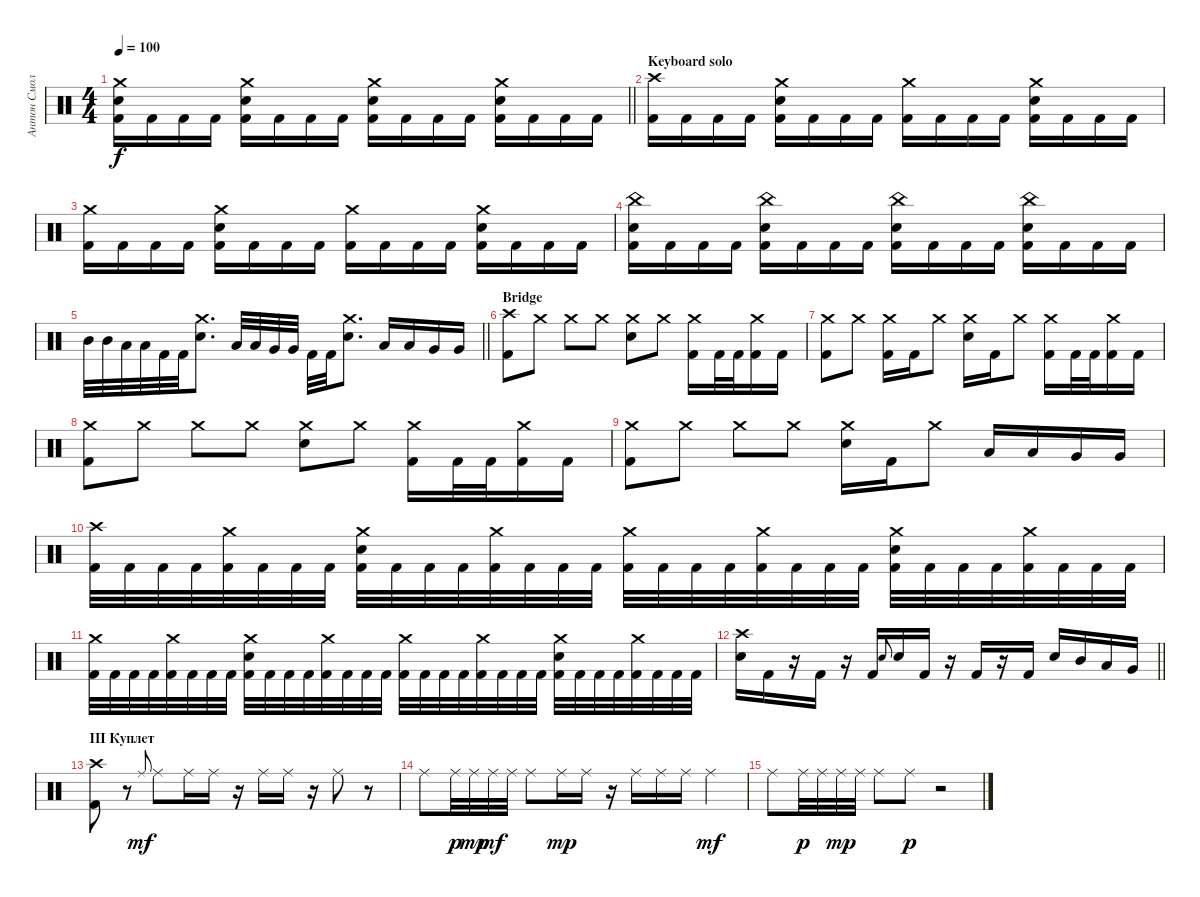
\track ("Антон Смольянин" "Антон Смол") {instrument percussion}
\staff {score}
\articulation defaults
\ts (4 4)
\tempo 100
\clef neutral
\barLineRight lightlight
\ks c
("Crash medium (hit)" "Electric Snare (hit)" "Kick (hit) 2").16{dy f} "Kick (hit) 2".16 "Kick (hit) 2".16 "Kick (hit) 2".16 ("Crash medium (hit)" "Electric Snare (hit)" "Kick (hit) 2").16 "Kick (hit) 2".16 "Kick (hit) 2".16 "Kick (hit) 2".16 ("Crash medium (hit)" "Electric Snare (hit)" "Kick (hit) 2").16 "Kick (hit) 2".16 "Kick (hit) 2".16 "Kick (hit) 2".16 ("Crash medium (hit)" "Electric Snare (hit)" "Kick (hit) 2").16 "Kick (hit) 2".16 "Kick (hit) 2".16 "Kick (hit) 2".16 |
\section ("" "Keyboard solo")
("Crash high (hit)" "Kick (hit) 2").16 "Kick (hit) 2".16 "Kick (hit) 2".16 "Kick (hit) 2".16 ("Crash medium (hit)" "Electric Snare (hit)" "Kick (hit) 2").16 "Kick (hit) 2".16 "Kick (hit) 2".16 "Kick (hit) 2".16 ("Crash medium (hit)" "Kick (hit) 2").16 "Kick (hit) 2".16 "Kick (hit) 2".16 "Kick (hit) 2".16 ("Crash medium (hit)" "Electric Snare (hit)" "Kick (hit) 2").16 "Kick (hit) 2".16 "Kick (hit) 2".16 "Kick (hit) 2".16 |
("Crash medium (hit)" "Kick (hit) 2").16 "Kick (hit) 2".16 "Kick (hit) 2".16 "Kick (hit) 2".16 ("Crash medium (hit)" "Electric Snare (hit)" "Kick (hit) 2").16 "Kick (hit) 2".16 "Kick (hit) 2".16 "Kick (hit) 2".16 ("Crash medium (hit)" "Kick (hit) 2").16 "Kick (hit) 2".16 "Kick (hit) 2".16 "Kick (hit) 2".16 ("Crash medium (hit)" "Electric Snare (hit)" "Kick (hit) 2").16 "Kick (hit) 2".16 "Kick (hit) 2".16 "Kick (hit) 2".16 |
("China (hit)" "Electric Snare (hit)" "Kick (hit) 2").16 "Kick (hit) 2".16 "Kick (hit) 2".16 "Kick (hit) 2".16 ("China (hit)" "Electric Snare (hit)" "Kick (hit) 2").16 "Kick (hit) 2".16 "Kick (hit) 2".16 "Kick (hit) 2".16 ("China (hit)" "Electric Snare (hit)" "Kick (hit) 2").16 "Kick (hit) 2".16 "Kick (hit) 2".16 "Kick (hit) 2".16 ("China (hit)" "Electric Snare (hit)" "Kick (hit) 2").16 "Kick (hit) 2".16 "Kick (hit) 2".16 "Kick (hit) 2".16 |
\barLineRight lightlight "Mid Tom (hit)".32 "Mid Tom (hit)".32 "Low Tom (hit)".32 "Low Tom (hit)".32 "Kick (hit) 2".32 "Kick (hit) 2".32
("Crash medium (hit)" "Electric Snare (hit)").8{d} "Low Tom (hit)".32 "Low Tom (hit)".32 "Very Low Tom (hit)".32 "Very Low Tom (hit)".32 "Kick (hit) 2".32 "Kick (hit) 2".32 ("Crash medium (hit)" "Electric Snare (hit)").8{d} "Low Tom (hit)".16 "Low Tom (hit)".16 "Very Low Tom (hit)".16 "Very Low Tom (hit)".16 |
\section ("" "Bridge")
("Crash high (hit)" "Kick (hit) 2").8 "Crash medium (hit)".8 "Crash medium (hit)".8 "Crash medium (hit)".8 ("Crash medium (hit)" "Electric Snare (hit)").8 "Crash medium (hit)".8 ("Crash medium (hit)" "Kick (hit) 2").16 "Kick (hit) 2".32 "Kick (hit) 2".32 ("Crash medium (hit)" "Kick (hit) 2").16 "Kick (hit) 2".16 |
("Crash medium (hit)" "Kick (hit) 2").8 "Crash medium (hit)".8 ("Crash medium (hit)" "Kick (hit) 2").16 "Kick (hit) 2".16 "Crash medium (hit)".8 ("Crash medium (hit)" "Electric Snare (hit)").16 "Kick (hit) 2".16 "Crash medium (hit)".8 ("Crash medium (hit)" "Kick (hit) 2").16 "Kick (hit) 2".32 "Kick (hit) 2".32 ("Crash medium (hit)" "Kick (hit) 2").16 "Kick (hit) 2".16 |
("Crash medium (hit)" "Kick (hit) 2").8 "Crash medium (hit)".8 "Crash medium (hit)".8 "Crash medium (hit)".8 ("Crash medium (hit)" "Electric Snare (hit)").8 "Crash medium (hit)".8 ("Crash medium (hit)" "Kick (hit) 2").16 "Kick (hit) 2".32 "Kick (hit) 2".32 ("Crash medium (hit)" "Kick (hit) 2").16 "Kick (hit) 2".16 |
("Crash medium (hit)" "Kick (hit) 2").8 "Crash medium (hit)".8 "Crash medium (hit)".8 "Crash medium (hit)".8 ("Crash medium (hit)" "Electric Snare (hit)").16 "Kick (hit) 2".16 "Crash medium (hit)".8 "Low Tom (hit)".16 "Low Tom (hit)".16 "Very Low Tom (hit)".16 "Very Low Tom (hit)".16 |
("Crash high (hit)" "Kick (hit) 2").32 "Kick (hit) 2".32 "Kick (hit) 2".32 "Kick (hit) 2".32 ("Crash medium (hit)" "Kick (hit) 2").32 "Kick (hit) 2".32 "Kick (hit) 2".32 "Kick (hit) 2".32 ("Crash medium (hit)" "Electric Snare (hit)" "Kick (hit) 2").32 "Kick (hit) 2".32 "Kick (hit) 2".32 "Kick (hit) 2".32 ("Crash medium (hit)" "Kick (hit) 2").32 "Kick (hit) 2".32 "Kick (hit) 2".32 "Kick (hit) 2".32 ("Crash medium (hit)" "Kick (hit) 2").32 "Kick (hit) 2".32 "Kick (hit) 2".32 "Kick (hit) 2".32 ("Crash medium (hit)" "Kick (hit) 2").32 "Kick (hit) 2".32 "Kick (hit) 2".32 "Kick (hit) 2".32 ("Crash medium (hit)" "Electric Snare (hit)" "Kick (hit) 2").32 "Kick (hit) 2".32 "Kick (hit) 2".32 "Kick (hit) 2".32 ("Crash medium (hit)" "Kick (hit) 2").32 "Kick (hit) 2".32 "Kick (hit) 2".32 "Kick (hit) 2".32 |
("Crash medium (hit)" "Kick (hit) 2").32 "Kick (hit) 2".32 "Kick (hit) 2".32 "Kick (hit) 2".32 ("Crash medium (hit)" "Kick (hit) 2").32 "Kick (hit) 2".32 "Kick (hit) 2".32 "Kick (hit) 2".32 ("Crash medium (hit)" "Electric Snare (hit)" "Kick (hit) 2").32 "Kick (hit) 2".32 "Kick (hit) 2".32 "Kick (hit) 2".32 ("Crash medium (hit)" "Kick (hit) 2").32 "Kick (hit) 2".32 "Kick (hit) 2".32 "Kick (hit) 2".32 ("Crash medium (hit)" "Kick (hit) 2").32 "Kick (hit) 2".32 "Kick (hit) 2".32 "Kick (hit) 2".32 ("Crash medium (hit)" "Kick (hit) 2").32 "Kick (hit) 2".32 "Kick (hit) 2".32 "Kick (hit) 2".32 ("Crash medium (hit)" "Electric Snare (hit)" "Kick (hit) 2").32 "Kick (hit) 2".32 "Kick (hit) 2".32 "Kick (hit) 2".32 ("Crash medium (hit)" "Kick (hit) 2").32 "Kick (hit) 2".32 "Kick (hit) 2".32 "Kick (hit) 2".32 |
\barLineRight lightlight
("Crash high (hit)" "Electric Snare (hit)").16 "Kick (hit) 2".16 r.16 "Kick (hit) 2".16 r.16 "Kick (hit) 2".16 "Electric Snare (hit)".8{gr onbeat} "Electric Snare (hit)".16 "Kick (hit) 2".16 r.16 "Kick (hit) 2".16 r.16 "Kick (hit) 2".16 "Electric Snare (hit)".16 "Mid Tom (hit)".16 "Low Tom (hit)".16 "Very Low Tom (hit)".16 |
\section ("" "III Куплет")
("Crash high (hit)" "Kick (hit) 2").8 r.8 "Ride (middle)".8{gr onbeat dy mf} "Ride (middle)".8 "Ride (middle)".16 "Ride (middle)".16 r.16 "Ride (middle)".16 "Ride (middle)".16 r.16 "Ride (middle)".8 r.8 |
"Ride (middle)".8 "Ride (middle)".32{dy p} "Ride (middle)".32{dy mp} "Ride (middle)".32{dy mf} "Ride (middle)".32 "Ride (middle)".8 "Ride (middle)".16{dy mp} "Ride (middle)".16 r.16 "Ride (middle)".16 "Ride (middle)".16 "Ride (middle)".16 "Ride (middle)".4{dy mf} |
"Ride (middle)".8 "Ride (middle)".32{dy p} "Ride (middle)".32 "Ride (middle)".32{dy mp} "Ride (middle)".32 "Ride (middle)".8 "Ride (middle)".8{dy p} r.2
